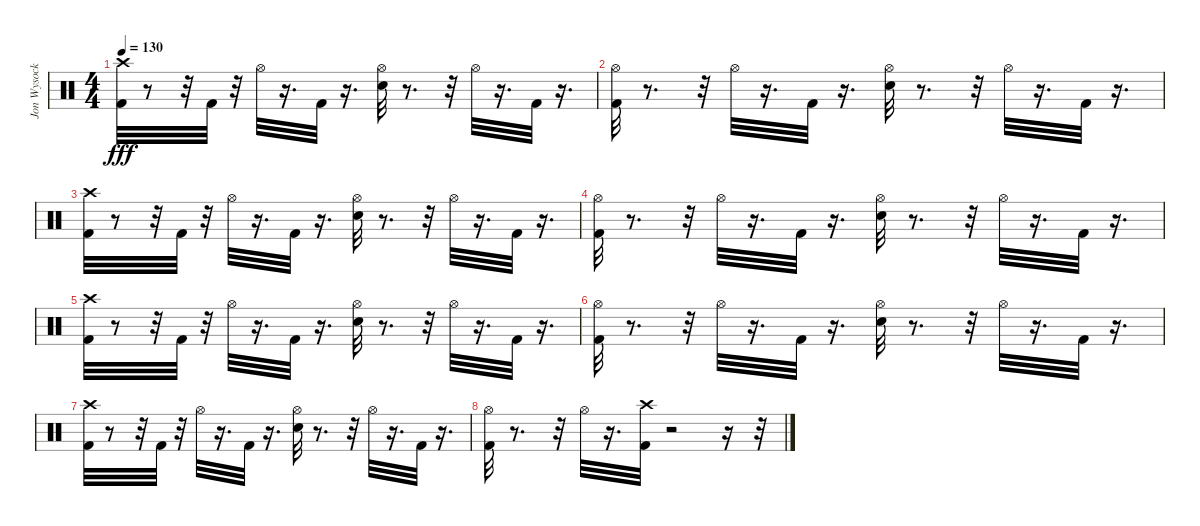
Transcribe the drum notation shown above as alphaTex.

\track ("Jon Wysocki - Drums" "Jon Wysock") {instrument percussion}
\staff {score}
\articulation defaults
\ts (4 4)
\tempo 130
\clef neutral
\ks c
("Crash high (hit)" "Kick (hit) 2").32{dy fff} r.8 r.32 "Kick (hit) 2".32 r.32 "Hi-Hat (open)".32 r.16{d} "Kick (hit) 2".32 r.16{d} ("Hi-Hat (open)" "Electric Snare (hit)").32 r.8{d} r.32 "Hi-Hat (open)".32 r.16{d} "Kick (hit) 2".32 r.16{d} |
("Hi-Hat (open)" "Kick (hit) 2").32 r.8{d} r.32 "Hi-Hat (open)".32 r.16{d} "Kick (hit) 2".32 r.16{d} ("Electric Snare (hit)" "Hi-Hat (open)").32 r.8{d} r.32 "Hi-Hat (open)".32 r.16{d} "Kick (hit) 2".32 r.16{d} |
("Crash high (hit)" "Kick (hit) 2").32 r.8 r.32 "Kick (hit) 2".32 r.32 "Hi-Hat (open)".32 r.16{d} "Kick (hit) 2".32 r.16{d} ("Hi-Hat (open)" "Electric Snare (hit)").32 r.8{d} r.32 "Hi-Hat (open)".32 r.16{d} "Kick (hit) 2".32 r.16{d} |
("Hi-Hat (open)" "Kick (hit) 2").32 r.8{d} r.32 "Hi-Hat (open)".32 r.16{d} "Kick (hit) 2".32 r.16{d} ("Electric Snare (hit)" "Hi-Hat (open)").32 r.8{d} r.32 "Hi-Hat (open)".32 r.16{d} "Kick (hit) 2".32 r.16{d} |
("Crash high (hit)" "Kick (hit) 2").32 r.8 r.32 "Kick (hit) 2".32 r.32 "Hi-Hat (open)".32 r.16{d} "Kick (hit) 2".32 r.16{d} ("Hi-Hat (open)" "Electric Snare (hit)").32 r.8{d} r.32 "Hi-Hat (open)".32 r.16{d} "Kick (hit) 2".32 r.16{d} |
("Hi-Hat (open)" "Kick (hit) 2").32 r.8{d} r.32 "Hi-Hat (open)".32 r.16{d} "Kick (hit) 2".32 r.16{d} ("Electric Snare (hit)" "Hi-Hat (open)").32 r.8{d} r.32 "Hi-Hat (open)".32 r.16{d} "Kick (hit) 2".32 r.16{d} |
("Crash high (hit)" "Kick (hit) 2").32 r.8 r.32 "Kick (hit) 2".32 r.32 "Hi-Hat (open)".32 r.16{d} "Kick (hit) 2".32 r.16{d} ("Hi-Hat (open)" "Electric Snare (hit)").32 r.8{d} r.32 "Hi-Hat (open)".32 r.16{d} "Kick (hit) 2".32 r.16{d} |
("Hi-Hat (open)" "Kick (hit) 2").32 r.8{d} r.32 "Hi-Hat (open)".32 r.16{d} ("Crash high (hit)" "Kick (hit) 2").32 r.2 r.16 r.32
